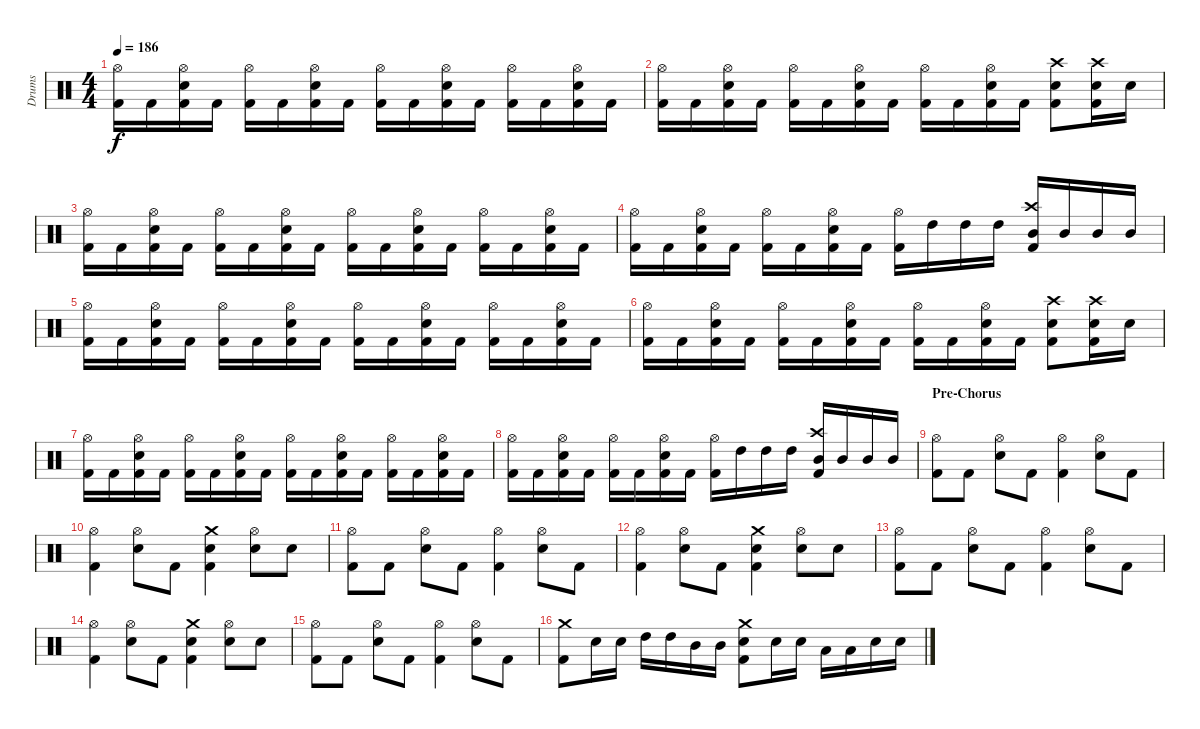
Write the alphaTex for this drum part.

\track ("Drums" "Drums") {instrument percussion}
\staff {score}
\articulation defaults
\ts (4 4)
\tempo 186
\clef neutral
\ks c
("Hi-Hat (open)" "Kick (hit) 2").16{dy f} "Kick (hit) 2".16 ("Electric Snare (hit)" "Hi-Hat (open)" "Kick (hit) 2").16 "Kick (hit) 2".16 ("Hi-Hat (open)" "Kick (hit) 2").16 "Kick (hit) 2".16 ("Electric Snare (hit)" "Hi-Hat (open)" "Kick (hit) 2").16 "Kick (hit) 2".16 ("Hi-Hat (open)" "Kick (hit) 2").16 "Kick (hit) 2".16 ("Electric Snare (hit)" "Hi-Hat (open)" "Kick (hit) 2").16 "Kick (hit) 2".16 ("Hi-Hat (open)" "Kick (hit) 2").16 "Kick (hit) 2".16 ("Electric Snare (hit)" "Hi-Hat (open)" "Kick (hit) 2").16 "Kick (hit) 2".16 |
("Hi-Hat (open)" "Kick (hit) 2").16 "Kick (hit) 2".16 ("Electric Snare (hit)" "Hi-Hat (open)" "Kick (hit) 2").16 "Kick (hit) 2".16 ("Hi-Hat (open)" "Kick (hit) 2").16 "Kick (hit) 2".16 ("Electric Snare (hit)" "Hi-Hat (open)" "Kick (hit) 2").16 "Kick (hit) 2".16 ("Hi-Hat (open)" "Kick (hit) 2").16 "Kick (hit) 2".16 ("Electric Snare (hit)" "Hi-Hat (open)" "Kick (hit) 2").16 "Kick (hit) 2".16 ("Crash high (hit)" "Electric Snare (hit)" "Kick (hit) 2").8 ("Crash high (hit)" "Electric Snare (hit)" "Kick (hit) 2").16 "Electric Snare (hit)".16 |
("Hi-Hat (open)" "Kick (hit) 2").16 "Kick (hit) 2".16 ("Electric Snare (hit)" "Hi-Hat (open)" "Kick (hit) 2").16 "Kick (hit) 2".16 ("Hi-Hat (open)" "Kick (hit) 2").16 "Kick (hit) 2".16 ("Electric Snare (hit)" "Hi-Hat (open)" "Kick (hit) 2").16 "Kick (hit) 2".16 ("Hi-Hat (open)" "Kick (hit) 2").16 "Kick (hit) 2".16 ("Electric Snare (hit)" "Hi-Hat (open)" "Kick (hit) 2").16 "Kick (hit) 2".16 ("Hi-Hat (open)" "Kick (hit) 2").16 "Kick (hit) 2".16 ("Electric Snare (hit)" "Hi-Hat (open)" "Kick (hit) 2").16 "Kick (hit) 2".16 |
("Hi-Hat (open)" "Kick (hit) 2").16 "Kick (hit) 2".16 ("Electric Snare (hit)" "Hi-Hat (open)" "Kick (hit) 2").16 "Kick (hit) 2".16 ("Hi-Hat (open)" "Kick (hit) 2").16 "Kick (hit) 2".16 ("Electric Snare (hit)" "Hi-Hat (open)" "Kick (hit) 2").16 "Kick (hit) 2".16 ("Hi-Hat (open)" "Kick (hit) 2").16 "High Tom (hit)".16 "High Tom (hit)".16 "High Tom (hit)".16 ("Crash high (hit)" "Mid Tom (hit)" "Kick (hit) 2").16 "Mid Tom (hit)".16 "Mid Tom (hit)".16 "Mid Tom (hit)".16 |
("Hi-Hat (open)" "Kick (hit) 2").16 "Kick (hit) 2".16 ("Electric Snare (hit)" "Hi-Hat (open)" "Kick (hit) 2").16 "Kick (hit) 2".16 ("Hi-Hat (open)" "Kick (hit) 2").16 "Kick (hit) 2".16 ("Electric Snare (hit)" "Hi-Hat (open)" "Kick (hit) 2").16 "Kick (hit) 2".16 ("Hi-Hat (open)" "Kick (hit) 2").16 "Kick (hit) 2".16 ("Electric Snare (hit)" "Hi-Hat (open)" "Kick (hit) 2").16 "Kick (hit) 2".16 ("Hi-Hat (open)" "Kick (hit) 2").16 "Kick (hit) 2".16 ("Electric Snare (hit)" "Hi-Hat (open)" "Kick (hit) 2").16 "Kick (hit) 2".16 |
("Hi-Hat (open)" "Kick (hit) 2").16 "Kick (hit) 2".16 ("Electric Snare (hit)" "Hi-Hat (open)" "Kick (hit) 2").16 "Kick (hit) 2".16 ("Hi-Hat (open)" "Kick (hit) 2").16 "Kick (hit) 2".16 ("Electric Snare (hit)" "Hi-Hat (open)" "Kick (hit) 2").16 "Kick (hit) 2".16 ("Hi-Hat (open)" "Kick (hit) 2").16 "Kick (hit) 2".16 ("Electric Snare (hit)" "Hi-Hat (open)" "Kick (hit) 2").16 "Kick (hit) 2".16 ("Crash high (hit)" "Electric Snare (hit)" "Kick (hit) 2").8 ("Crash high (hit)" "Electric Snare (hit)" "Kick (hit) 2").16 "Electric Snare (hit)".16 |
("Hi-Hat (open)" "Kick (hit) 2").16 "Kick (hit) 2".16 ("Electric Snare (hit)" "Hi-Hat (open)" "Kick (hit) 2").16 "Kick (hit) 2".16 ("Hi-Hat (open)" "Kick (hit) 2").16 "Kick (hit) 2".16 ("Electric Snare (hit)" "Hi-Hat (open)" "Kick (hit) 2").16 "Kick (hit) 2".16 ("Hi-Hat (open)" "Kick (hit) 2").16 "Kick (hit) 2".16 ("Electric Snare (hit)" "Hi-Hat (open)" "Kick (hit) 2").16 "Kick (hit) 2".16 ("Hi-Hat (open)" "Kick (hit) 2").16 "Kick (hit) 2".16 ("Electric Snare (hit)" "Hi-Hat (open)" "Kick (hit) 2").16 "Kick (hit) 2".16 |
("Hi-Hat (open)" "Kick (hit) 2").16 "Kick (hit) 2".16 ("Electric Snare (hit)" "Hi-Hat (open)" "Kick (hit) 2").16 "Kick (hit) 2".16 ("Hi-Hat (open)" "Kick (hit) 2").16 "Kick (hit) 2".16 ("Electric Snare (hit)" "Hi-Hat (open)" "Kick (hit) 2").16 "Kick (hit) 2".16 ("Hi-Hat (open)" "Kick (hit) 2").16 "High Tom (hit)".16 "High Tom (hit)".16 "High Tom (hit)".16 ("Crash high (hit)" "Mid Tom (hit)" "Kick (hit) 2").16 "Mid Tom (hit)".16 "Mid Tom (hit)".16 "Mid Tom (hit)".16 |
\section ("" "Pre-Chorus")
("Hi-Hat (open)" "Kick (hit) 2").8 "Kick (hit) 2".8 ("Hi-Hat (open)" "Electric Snare (hit)").8 "Kick (hit) 2".8 ("Hi-Hat (open)" "Kick (hit) 2").4 ("Hi-Hat (open)" "Electric Snare (hit)").8 "Kick (hit) 2".8 |
("Hi-Hat (open)" "Kick (hit) 2").4 ("Hi-Hat (open)" "Electric Snare (hit)").8 "Kick (hit) 2".8 ("Crash medium (hit)" "Electric Snare (hit)" "Kick (hit) 2").4 ("Hi-Hat (open)" "Electric Snare (hit)").8 "Electric Snare (hit)".8 |
("Hi-Hat (open)" "Kick (hit) 2").8 "Kick (hit) 2".8 ("Hi-Hat (open)" "Electric Snare (hit)").8 "Kick (hit) 2".8 ("Hi-Hat (open)" "Kick (hit) 2").4 ("Hi-Hat (open)" "Electric Snare (hit)").8 "Kick (hit) 2".8 |
("Hi-Hat (open)" "Kick (hit) 2").4 ("Hi-Hat (open)" "Electric Snare (hit)").8 "Kick (hit) 2".8 ("Crash medium (hit)" "Electric Snare (hit)" "Kick (hit) 2").4 ("Hi-Hat (open)" "Electric Snare (hit)").8 "Electric Snare (hit)".8 |
("Hi-Hat (open)" "Kick (hit) 2").8 "Kick (hit) 2".8 ("Hi-Hat (open)" "Electric Snare (hit)").8 "Kick (hit) 2".8 ("Hi-Hat (open)" "Kick (hit) 2").4 ("Hi-Hat (open)" "Electric Snare (hit)").8 "Kick (hit) 2".8 |
("Hi-Hat (open)" "Kick (hit) 2").4 ("Hi-Hat (open)" "Electric Snare (hit)").8 "Kick (hit) 2".8 ("Crash medium (hit)" "Electric Snare (hit)" "Kick (hit) 2").4 ("Hi-Hat (open)" "Electric Snare (hit)").8 "Electric Snare (hit)".8 |
("Hi-Hat (open)" "Kick (hit) 2").8 "Kick (hit) 2".8 ("Hi-Hat (open)" "Electric Snare (hit)").8 "Kick (hit) 2".8 ("Hi-Hat (open)" "Kick (hit) 2").4 ("Hi-Hat (open)" "Electric Snare (hit)").8 "Kick (hit) 2".8 |
("Crash medium (hit)" "Kick (hit) 2").8 "Electric Snare (hit)".16 "Electric Snare (hit)".16 "High Tom (hit)".16 "High Tom (hit)".16 "Mid Tom (hit)".16 "Mid Tom (hit)".16 ("Crash medium (hit)" "Electric Snare (hit)" "Kick (hit) 2").8 "Electric Snare (hit)".16 "Electric Snare (hit)".16 "Low Tom (hit)".16 "Low Tom (hit)".16 "Electric Snare (hit)".16 "Electric Snare (hit)".16
